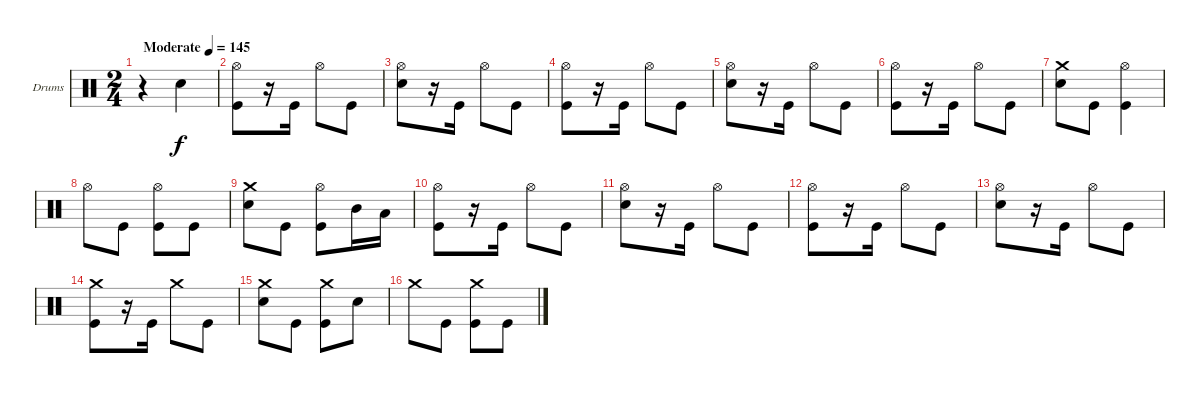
\bracketExtendMode groupsimilarinstruments
\firstSystemTrackNameOrientation horizontal
\otherSystemsTrackNameOrientation horizontal
\track ("Drumkit" "Drums") {instrument percussion}
\staff {score}
\articulation defaults
\ts (2 4)
\beaming (8 2 2)
\tempo (145 "Moderate")
\clef neutral
\ks c
r.4{dy f} "Snare (hit) 2".4 |
("Kick (hit)" "Hi-Hat (open)").8 r.16 "Kick (hit)".16 "Hi-Hat (open)".8 "Kick (hit)".8 |
("Snare (hit) 2" "Hi-Hat (open)").8 r.16 "Kick (hit)".16 "Hi-Hat (open)".8 "Kick (hit)".8 |
("Kick (hit)" "Hi-Hat (open)").8 r.16 "Kick (hit)".16 "Hi-Hat (open)".8 "Kick (hit)".8 |
("Snare (hit) 2" "Hi-Hat (open)").8 r.16 "Kick (hit)".16 "Hi-Hat (open)".8 "Kick (hit)".8 |
("Kick (hit)" "Hi-Hat (open)").8 r.16 "Kick (hit)".16 "Hi-Hat (open)".8 "Kick (hit)".8 |
("Snare (hit) 2" "Crash medium (hit)").8 "Kick (hit)".8 ("Kick (hit)" "Hi-Hat (open)").4 |
"Hi-Hat (open)".8 "Kick (hit)".8 ("Kick (hit)" "Hi-Hat (open)").8 "Kick (hit)".8 |
("Snare (hit) 2" "Crash medium (hit)").8 "Kick (hit)".8 ("Kick (hit)" "Hi-Hat (open)").8 "Mid Tom (hit)".16 "Low Tom (hit)".16 |
("Kick (hit)" "Hi-Hat (open)").8 r.16 "Kick (hit)".16 "Hi-Hat (open)".8 "Kick (hit)".8 |
("Snare (hit) 2" "Hi-Hat (open)").8 r.16 "Kick (hit)".16 "Hi-Hat (open)".8 "Kick (hit)".8 |
("Kick (hit)" "Hi-Hat (open)").8 r.16 "Kick (hit)".16 "Hi-Hat (open)".8 "Kick (hit)".8 |
("Snare (hit) 2" "Hi-Hat (open)").8 r.16 "Kick (hit)".16 "Hi-Hat (open)".8 "Kick (hit)".8 |
("Kick (hit)" "Crash medium (hit)").8 r.16 "Kick (hit)".16 "Crash medium (hit)".8 "Kick (hit)".8 |
("Snare (hit) 2" "Crash medium (hit)").8 "Kick (hit)".8 ("Kick (hit)" "Crash medium (hit)").8 "Snare (hit) 2".8 |
"Crash medium (hit)".8 "Kick (hit)".8 ("Kick (hit)" "Crash medium (hit)").8 "Kick (hit)".8
